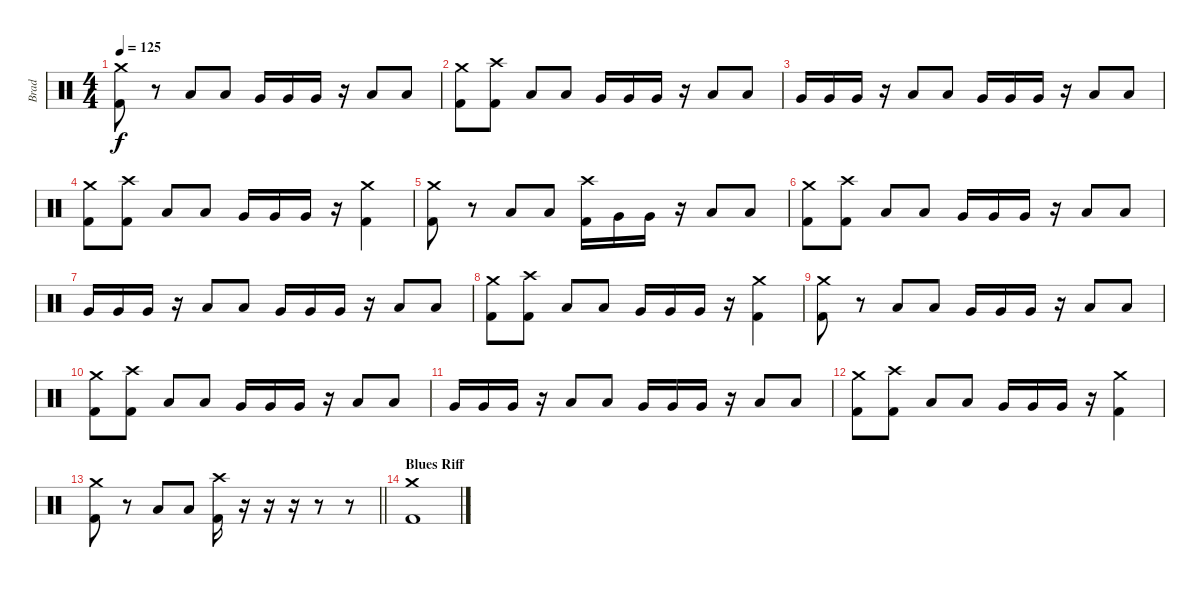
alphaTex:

\track ("Brad" "Brad") {instrument percussion}
\staff {score}
\articulation defaults
\ts (4 4)
\tempo 125
\clef neutral
\ks c
("Crash medium (hit)" "Kick (hit) 2").8{dy f} r.8 "Low Tom (hit)".8 "Low Tom (hit)".8 "Very Low Tom (hit)".16 "Very Low Tom (hit)".16 "Very Low Tom (hit)".16 r.16 "Low Tom (hit)".8 "Low Tom (hit)".8 |
("Crash medium (hit)" "Kick (hit) 2").8 ("Crash high (hit)" "Kick (hit) 2").8 "Low Tom (hit)".8 "Low Tom (hit)".8 "Very Low Tom (hit)".16 "Very Low Tom (hit)".16 "Very Low Tom (hit)".16 r.16 "Low Tom (hit)".8 "Low Tom (hit)".8 |
"Very Low Tom (hit)".16 "Very Low Tom (hit)".16 "Very Low Tom (hit)".16 r.16 "Low Tom (hit)".8 "Low Tom (hit)".8 "Very Low Tom (hit)".16 "Very Low Tom (hit)".16 "Very Low Tom (hit)".16 r.16 "Low Tom (hit)".8 "Low Tom (hit)".8 |
("Crash medium (hit)" "Kick (hit) 2").8 ("Crash high (hit)" "Kick (hit) 2").8 "Low Tom (hit)".8 "Low Tom (hit)".8 "Very Low Tom (hit)".16 "Very Low Tom (hit)".16 "Very Low Tom (hit)".16 r.16 ("Crash medium (hit)" "Kick (hit) 2").4 |
("Crash medium (hit)" "Kick (hit) 2").8 r.8 "Low Tom (hit)".8 "Low Tom (hit)".8 ("Crash high (hit)" "Kick (hit) 2").16 "Very Low Tom (hit)".16 "Very Low Tom (hit)".16 r.16 "Low Tom (hit)".8 "Low Tom (hit)".8 |
("Crash medium (hit)" "Kick (hit) 2").8 ("Crash high (hit)" "Kick (hit) 2").8 "Low Tom (hit)".8 "Low Tom (hit)".8 "Very Low Tom (hit)".16 "Very Low Tom (hit)".16 "Very Low Tom (hit)".16 r.16 "Low Tom (hit)".8 "Low Tom (hit)".8 |
"Very Low Tom (hit)".16 "Very Low Tom (hit)".16 "Very Low Tom (hit)".16 r.16 "Low Tom (hit)".8 "Low Tom (hit)".8 "Very Low Tom (hit)".16 "Very Low Tom (hit)".16 "Very Low Tom (hit)".16 r.16 "Low Tom (hit)".8 "Low Tom (hit)".8 |
("Crash medium (hit)" "Kick (hit) 2").8 ("Crash high (hit)" "Kick (hit) 2").8 "Low Tom (hit)".8 "Low Tom (hit)".8 "Very Low Tom (hit)".16 "Very Low Tom (hit)".16 "Very Low Tom (hit)".16 r.16 ("Crash medium (hit)" "Kick (hit) 2").4 |
("Crash medium (hit)" "Kick (hit) 2").8 r.8 "Low Tom (hit)".8 "Low Tom (hit)".8 "Very Low Tom (hit)".16 "Very Low Tom (hit)".16 "Very Low Tom (hit)".16 r.16 "Low Tom (hit)".8 "Low Tom (hit)".8 |
("Crash medium (hit)" "Kick (hit) 2").8 ("Crash high (hit)" "Kick (hit) 2").8 "Low Tom (hit)".8 "Low Tom (hit)".8 "Very Low Tom (hit)".16 "Very Low Tom (hit)".16 "Very Low Tom (hit)".16 r.16 "Low Tom (hit)".8 "Low Tom (hit)".8 |
"Very Low Tom (hit)".16 "Very Low Tom (hit)".16 "Very Low Tom (hit)".16 r.16 "Low Tom (hit)".8 "Low Tom (hit)".8 "Very Low Tom (hit)".16 "Very Low Tom (hit)".16 "Very Low Tom (hit)".16 r.16 "Low Tom (hit)".8 "Low Tom (hit)".8 |
("Crash medium (hit)" "Kick (hit) 2").8 ("Crash high (hit)" "Kick (hit) 2").8 "Low Tom (hit)".8 "Low Tom (hit)".8 "Very Low Tom (hit)".16 "Very Low Tom (hit)".16 "Very Low Tom (hit)".16 r.16 ("Crash medium (hit)" "Kick (hit) 2").4 |
\barLineRight lightlight
("Crash medium (hit)" "Kick (hit) 2").8 r.8 "Low Tom (hit)".8 "Low Tom (hit)".8 ("Crash high (hit)" "Kick (hit) 2").16 r.16 r.16 r.16 r.8 r.8 |
\section ("" "Blues Riff")
("Crash medium (hit)" "Kick (hit) 2").1
